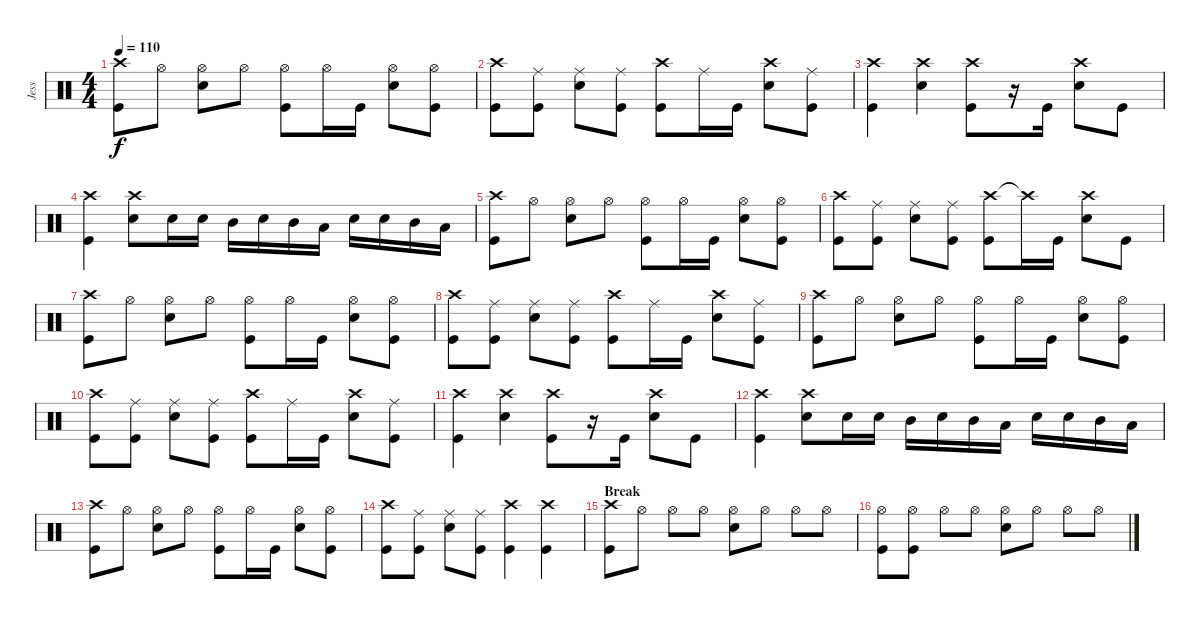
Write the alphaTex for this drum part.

\track ("Jess" "Jess") {instrument percussion}
\staff {score}
\articulation defaults
\ts (4 4)
\tempo 110
\clef neutral
\ks c
("Crash high (hit)" "Kick (hit)").8{dy f} "Hi-Hat (open)".8 ("Hi-Hat (open)" "Electric Snare (hit)").8 "Hi-Hat (open)".8 ("Hi-Hat (open)" "Kick (hit)").8 "Hi-Hat (open)".16 "Kick (hit)".16 ("Hi-Hat (open)" "Electric Snare (hit)").8 ("Hi-Hat (open)" "Kick (hit)").8 |
("Crash high (hit)" "Kick (hit)").8 ("Ride (middle)" "Kick (hit)").8 ("Ride (middle)" "Electric Snare (hit)").8 ("Ride (middle)" "Kick (hit)").8 ("Crash high (hit)" "Kick (hit)").8 "Ride (middle)".16 "Kick (hit)".16 ("Crash high (hit)" "Electric Snare (hit)").8 ("Ride (middle)" "Kick (hit)").8 |
("Crash high (hit)" "Kick (hit)").4 ("Crash high (hit)" "Electric Snare (hit)").4 ("Crash high (hit)" "Kick (hit)").8 r.16 "Kick (hit)".16 ("Crash high (hit)" "Electric Snare (hit)").8 "Kick (hit)".8 |
("Crash high (hit)" "Kick (hit)").4 ("Crash high (hit)" "Electric Snare (hit)").8 "Electric Snare (hit)".16 "Electric Snare (hit)".16 "Mid Tom (hit)".16 "Electric Snare (hit)".16 "Mid Tom (hit)".16 "Low Tom (hit)".16 "Electric Snare (hit)".16 "Electric Snare (hit)".16 "Mid Tom (hit)".16 "Low Tom (hit)".16 |
("Crash high (hit)" "Kick (hit)").8 "Hi-Hat (open)".8 ("Hi-Hat (open)" "Electric Snare (hit)").8 "Hi-Hat (open)".8 ("Hi-Hat (open)" "Kick (hit)").8 "Hi-Hat (open)".16 "Kick (hit)".16 ("Hi-Hat (open)" "Electric Snare (hit)").8 ("Hi-Hat (open)" "Kick (hit)").8 |
("Crash high (hit)" "Kick (hit)").8 ("Ride (middle)" "Kick (hit)").8 ("Ride (middle)" "Electric Snare (hit)").8 ("Ride (middle)" "Kick (hit)").8 ("Crash high (hit)" "Kick (hit)").8 "Crash high (hit)"{t}.16 "Kick (hit)".16 ("Crash high (hit)" "Electric Snare (hit)").8 "Kick (hit)".8 |
("Crash high (hit)" "Kick (hit)").8 "Hi-Hat (open)".8 ("Hi-Hat (open)" "Electric Snare (hit)").8 "Hi-Hat (open)".8 ("Hi-Hat (open)" "Kick (hit)").8 "Hi-Hat (open)".16 "Kick (hit)".16 ("Hi-Hat (open)" "Electric Snare (hit)").8 ("Hi-Hat (open)" "Kick (hit)").8 |
("Crash high (hit)" "Kick (hit)").8 ("Ride (middle)" "Kick (hit)").8 ("Ride (middle)" "Electric Snare (hit)").8 ("Ride (middle)" "Kick (hit)").8 ("Crash high (hit)" "Kick (hit)").8 "Ride (middle)".16 "Kick (hit)".16 ("Crash high (hit)" "Electric Snare (hit)").8 ("Ride (middle)" "Kick (hit)").8 |
("Crash high (hit)" "Kick (hit)").8 "Hi-Hat (open)".8 ("Hi-Hat (open)" "Electric Snare (hit)").8 "Hi-Hat (open)".8 ("Hi-Hat (open)" "Kick (hit)").8 "Hi-Hat (open)".16 "Kick (hit)".16 ("Hi-Hat (open)" "Electric Snare (hit)").8 ("Hi-Hat (open)" "Kick (hit)").8 |
("Crash high (hit)" "Kick (hit)").8 ("Ride (middle)" "Kick (hit)").8 ("Ride (middle)" "Electric Snare (hit)").8 ("Ride (middle)" "Kick (hit)").8 ("Crash high (hit)" "Kick (hit)").8 "Ride (middle)".16 "Kick (hit)".16 ("Crash high (hit)" "Electric Snare (hit)").8 ("Ride (middle)" "Kick (hit)").8 |
("Crash high (hit)" "Kick (hit)").4 ("Crash high (hit)" "Electric Snare (hit)").4 ("Crash high (hit)" "Kick (hit)").8 r.16 "Kick (hit)".16 ("Crash high (hit)" "Electric Snare (hit)").8 "Kick (hit)".8 |
("Crash high (hit)" "Kick (hit)").4 ("Crash high (hit)" "Electric Snare (hit)").8 "Electric Snare (hit)".16 "Electric Snare (hit)".16 "Mid Tom (hit)".16 "Electric Snare (hit)".16 "Mid Tom (hit)".16 "Low Tom (hit)".16 "Electric Snare (hit)".16 "Electric Snare (hit)".16 "Mid Tom (hit)".16 "Low Tom (hit)".16 |
("Crash high (hit)" "Kick (hit)").8 "Hi-Hat (open)".8 ("Hi-Hat (open)" "Electric Snare (hit)").8 "Hi-Hat (open)".8 ("Hi-Hat (open)" "Kick (hit)").8 "Hi-Hat (open)".16 "Kick (hit)".16 ("Hi-Hat (open)" "Electric Snare (hit)").8 ("Hi-Hat (open)" "Kick (hit)").8 |
("Crash high (hit)" "Kick (hit)").8 ("Ride (middle)" "Kick (hit)").8 ("Ride (middle)" "Electric Snare (hit)").8 ("Ride (middle)" "Kick (hit)").8 ("Crash high (hit)" "Kick (hit)").4 ("Crash high (hit)" "Kick (hit)").4 |
\section ("" "Break")
("Crash high (hit)" "Kick (hit)").8 "Hi-Hat (open)".8 "Hi-Hat (open)".8 "Hi-Hat (open)".8 ("Hi-Hat (open)" "Electric Snare (hit)").8 "Hi-Hat (open)".8 "Hi-Hat (open)".8 "Hi-Hat (open)".8 |
("Hi-Hat (open)" "Kick (hit)").8 ("Hi-Hat (open)" "Kick (hit)").8 "Hi-Hat (open)".8 "Hi-Hat (open)".8 ("Hi-Hat (open)" "Electric Snare (hit)").8 "Hi-Hat (open)".8 "Hi-Hat (open)".8 "Hi-Hat (open)".8
